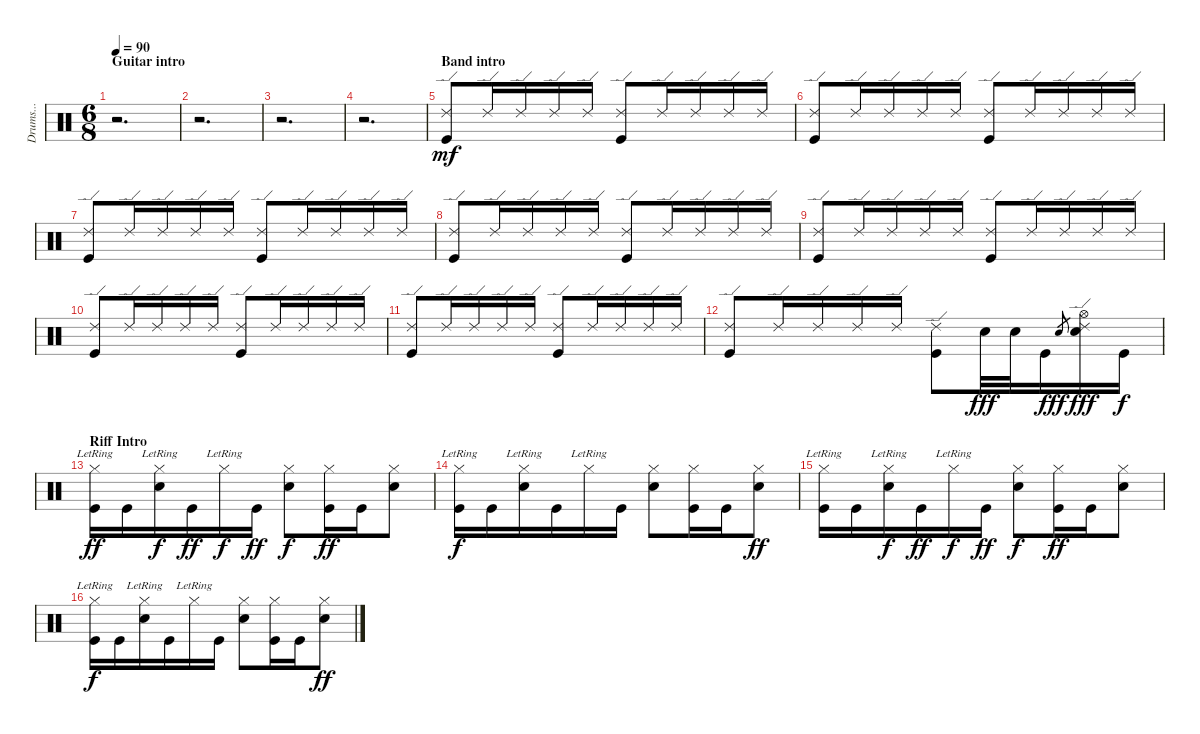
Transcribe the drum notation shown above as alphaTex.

\track ("Drums..." "Drums...") {instrument percussion}
\staff {score}
\articulation defaults
\ts (6 8)
\section ("" "Guitar intro")
\tempo 90
\clef neutral
\ks c
r.2{d dy mf} |
r.2{d} |
r.2{d} |
r.2{d} |
\section ("" "Band intro")
("Ride (edge) 2" "Kick (hit)").8 "Ride (edge) 2".16 "Ride (edge) 2".16 "Ride (edge) 2".16 "Ride (edge) 2".16 ("Ride (edge) 2" "Kick (hit)").8 "Ride (edge) 2".16 "Ride (edge) 2".16 "Ride (edge) 2".16 "Ride (edge) 2".16 |
("Ride (edge) 2" "Kick (hit)").8 "Ride (edge) 2".16 "Ride (edge) 2".16 "Ride (edge) 2".16 "Ride (edge) 2".16 ("Ride (edge) 2" "Kick (hit)").8 "Ride (edge) 2".16 "Ride (edge) 2".16 "Ride (edge) 2".16 "Ride (edge) 2".16 |
("Ride (edge) 2" "Kick (hit)").8 "Ride (edge) 2".16 "Ride (edge) 2".16 "Ride (edge) 2".16 "Ride (edge) 2".16 ("Ride (edge) 2" "Kick (hit)").8 "Ride (edge) 2".16 "Ride (edge) 2".16 "Ride (edge) 2".16 "Ride (edge) 2".16 |
("Ride (edge) 2" "Kick (hit)").8 "Ride (edge) 2".16 "Ride (edge) 2".16 "Ride (edge) 2".16 "Ride (edge) 2".16 ("Ride (edge) 2" "Kick (hit)").8 "Ride (edge) 2".16 "Ride (edge) 2".16 "Ride (edge) 2".16 "Ride (edge) 2".16 |
("Ride (edge) 2" "Kick (hit)").8 "Ride (edge) 2".16 "Ride (edge) 2".16 "Ride (edge) 2".16 "Ride (edge) 2".16 ("Ride (edge) 2" "Kick (hit)").8 "Ride (edge) 2".16 "Ride (edge) 2".16 "Ride (edge) 2".16 "Ride (edge) 2".16 |
("Ride (edge) 2" "Kick (hit)").8 "Ride (edge) 2".16 "Ride (edge) 2".16 "Ride (edge) 2".16 "Ride (edge) 2".16 ("Ride (edge) 2" "Kick (hit)").8 "Ride (edge) 2".16 "Ride (edge) 2".16 "Ride (edge) 2".16 "Ride (edge) 2".16 |
("Ride (edge) 2" "Kick (hit)").8 "Ride (edge) 2".16 "Ride (edge) 2".16 "Ride (edge) 2".16 "Ride (edge) 2".16 ("Ride (edge) 2" "Kick (hit)").8 "Ride (edge) 2".16 "Ride (edge) 2".16 "Ride (edge) 2".16 "Ride (edge) 2".16 |
("Ride (edge) 2" "Kick (hit)").8 "Ride (edge) 2".16 "Ride (edge) 2".16 "Ride (edge) 2".16 "Ride (edge) 2".16 ("Ride (edge) 2" "Kick (hit)").8 "Electric Snare (hit)".32{dy fff} "Electric Snare (hit)".32 "Kick (hit)".16{dy f} "Electric Snare (hit)".8{gr dy ff} ("Hi-Hat (open)" "Ride (edge) 2" "Electric Snare (hit)").16{dy fff} "Kick (hit)".16{dy f} |
\section ("" "Riff Intro")
("Hi-Hat (closed)"{lr} "Kick (hit)").16{dy ff} "Kick (hit)".16 ("Hi-Hat (closed)"{lr} "Electric Snare (hit)").16{dy f} "Kick (hit)".16{dy ff} "Hi-Hat (closed)"{lr}.16{dy f} "Kick (hit)".16{dy ff} ("Hi-Hat (closed)" "Electric Snare (hit)").8{dy f} ("Hi-Hat (closed)" "Kick (hit)").16{dy ff} "Kick (hit)".16 ("Hi-Hat (closed)" "Electric Snare (hit)").8 |
("Hi-Hat (closed)"{lr} "Kick (hit)").16{dy f} "Kick (hit)".16 ("Hi-Hat (closed)"{lr} "Electric Snare (hit)").16 "Kick (hit)".16 "Hi-Hat (closed)"{lr}.16 "Kick (hit)".16 ("Hi-Hat (closed)" "Electric Snare (hit)").8 ("Hi-Hat (closed)" "Kick (hit)").16 "Kick (hit)".16 ("Hi-Hat (closed)" "Electric Snare (hit)").8{dy ff} |
("Hi-Hat (closed)"{lr} "Kick (hit)").16 "Kick (hit)".16 ("Hi-Hat (closed)"{lr} "Electric Snare (hit)").16{dy f} "Kick (hit)".16{dy ff} "Hi-Hat (closed)"{lr}.16{dy f} "Kick (hit)".16{dy ff} ("Hi-Hat (closed)" "Electric Snare (hit)").8{dy f} ("Hi-Hat (closed)" "Kick (hit)").16{dy ff} "Kick (hit)".16 ("Hi-Hat (closed)" "Electric Snare (hit)").8 |
("Hi-Hat (closed)"{lr} "Kick (hit)").16{dy f} "Kick (hit)".16 ("Hi-Hat (closed)"{lr} "Electric Snare (hit)").16 "Kick (hit)".16 "Hi-Hat (closed)"{lr}.16 "Kick (hit)".16 ("Hi-Hat (closed)" "Electric Snare (hit)").8 ("Hi-Hat (closed)" "Kick (hit)").16 "Kick (hit)".16 ("Hi-Hat (closed)" "Electric Snare (hit)").8{dy ff}
